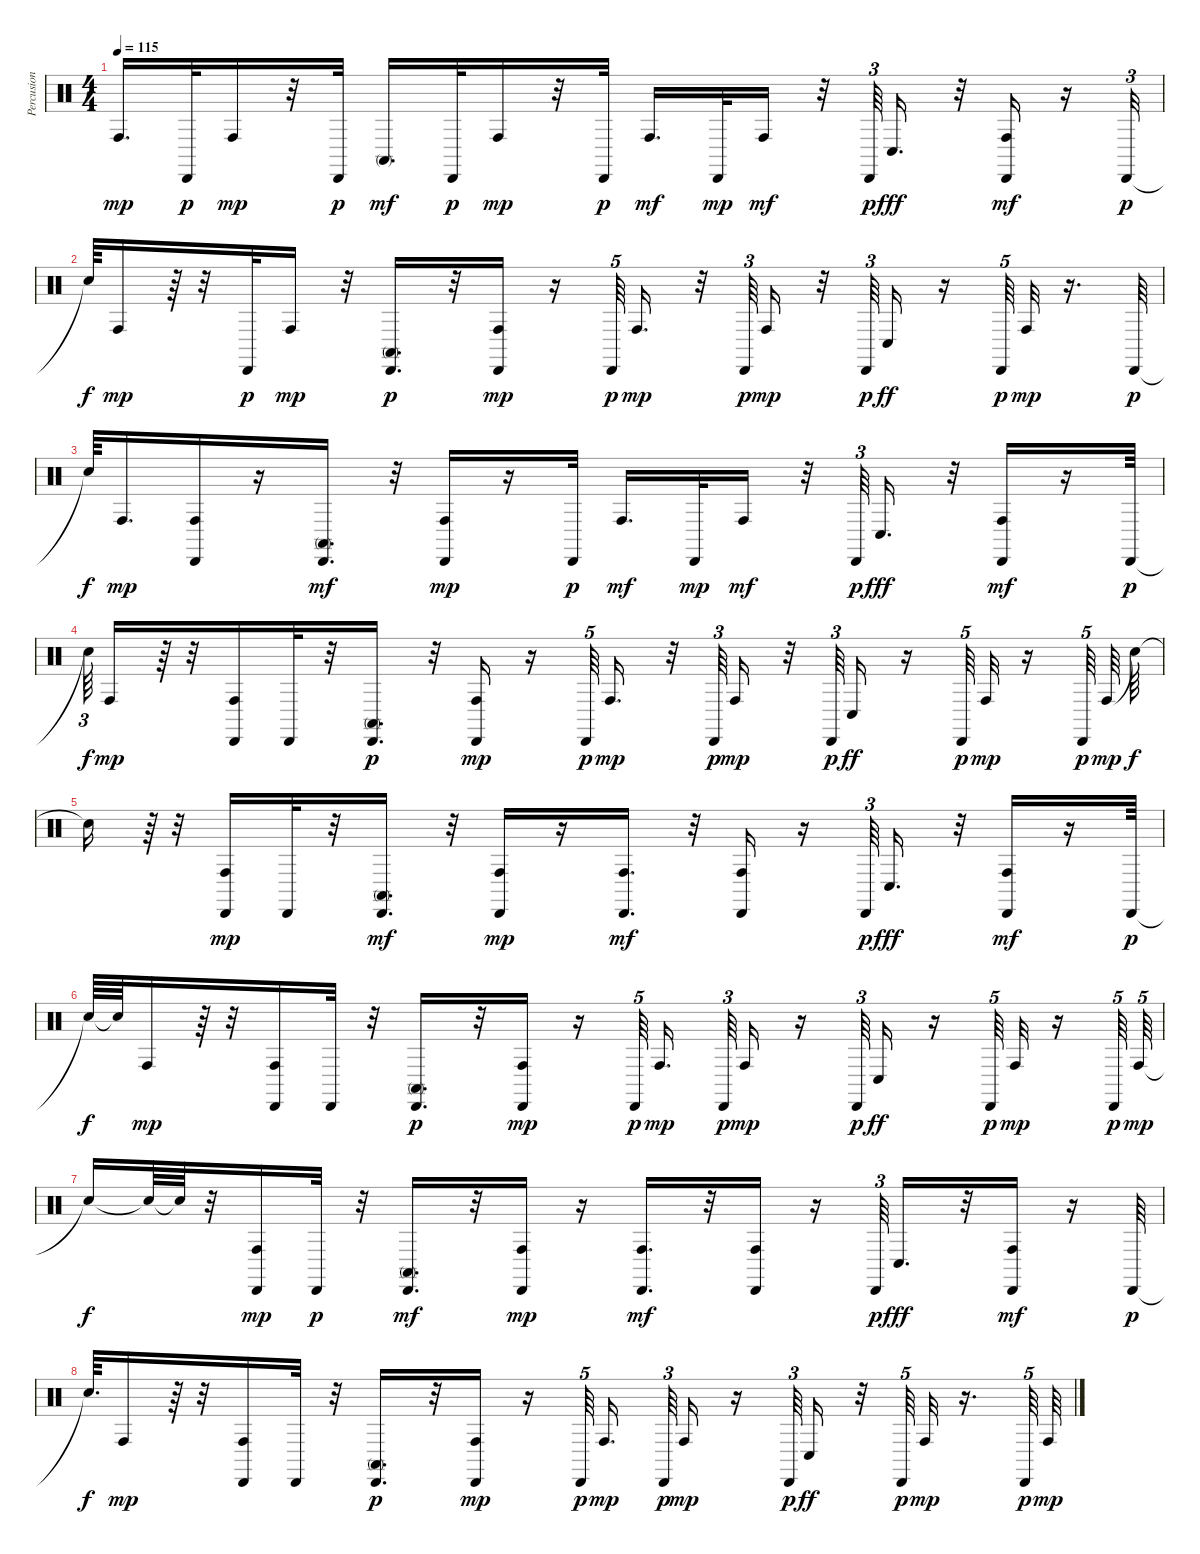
\track ("Percusion" "Percusion") {instrument percussion}
\staff {score}
\articulation defaults
\ts (4 4)
\tempo 115
\clef neutral
\ks c "Conga high (hit)".16{d dy mp} "Cabasa (hit)".32{dy p} "Conga high (hit)".16{dy mp}
r.32 "Cabasa (hit)".32{dy p} "Conga high (mute)".16{d dy mf} "Cabasa (hit)".32{dy p} "Conga high (hit)".16{dy mp} r.32 "Cabasa (hit)".32{dy p} "Conga high (hit)".16{d dy mf} "Cabasa (hit)".32{dy mp} "Conga high (hit)".16{dy mf} r.32 "Cabasa (hit)".64{tu (3 2) dy p} "Conga low (hit)".16{d dy fff} r.32 ("Cabasa (hit)" "Conga high (hit)").16{dy mf} r.16 "Cabasa (hit)".32{tu (3 2) dy p} |
"Snare (hit)"{t}.64{dy f} "Conga high (hit)".16{dy mp} r.64 r.32 "Cabasa (hit)".32{dy p} "Conga high (hit)".16{dy mp} r.32 ("Cabasa (hit)" "Conga high (mute)").16{d dy p} r.32 ("Cabasa (hit)" "Conga high (hit)").16{dy mp} r.16 "Cabasa (hit)".64{tu (5 4) dy p} "Conga high (hit)".16{d dy mp} r.32 "Cabasa (hit)".64{tu (3 2) dy p} "Conga high (hit)".16{dy mp} r.32 "Cabasa (hit)".64{tu (3 2) dy p} "Conga low (hit)".16{dy ff} r.16 "Cabasa (hit)".64{tu (5 4) dy p} "Conga high (hit)".32{dy mp} r.16{d} "Cabasa (hit)".64{dy p} |
"Snare (hit)"{t}.64{dy f} "Conga high (hit)".16{d dy mp} ("Cabasa (hit)" "Conga high (hit)").16 r.16 ("Cabasa (hit)" "Conga high (mute)").16{d dy mf} r.32 ("Cabasa (hit)" "Conga high (hit)").16{dy mp} r.16 "Cabasa (hit)".32{dy p} "Conga high (hit)".16{d dy mf} "Cabasa (hit)".32{dy mp} "Conga high (hit)".16{dy mf} r.32 "Cabasa (hit)".64{tu (3 2) dy p} "Conga low (hit)".16{d dy fff} r.32 ("Cabasa (hit)" "Conga high (hit)").16{dy mf} r.16 "Cabasa (hit)".64{dy p} |
"Snare (hit)"{t}.64{tu (3 2) dy f} "Conga high (hit)".16{dy mp} r.64 r.32 ("Cabasa (hit)" "Conga high (hit)").16 "Cabasa (hit)".32 r.32 ("Cabasa (hit)" "Conga high (mute)").16{d dy p} r.32 ("Cabasa (hit)" "Conga high (hit)").16{dy mp} r.16 "Cabasa (hit)".64{tu (5 4) dy p} "Conga high (hit)".16{d dy mp} r.32 "Cabasa (hit)".64{tu (3 2) dy p} "Conga high (hit)".16{dy mp} r.32 "Cabasa (hit)".64{tu (3 2) dy p} "Conga low (hit)".16{dy ff} r.16 "Cabasa (hit)".64{tu (5 4) dy p} "Conga high (hit)".32{dy mp} r.16 "Cabasa (hit)".64{tu (5 4) dy p} "Conga high (hit)".64{dy mp} "Snare (hit)"{t}.64{dy f} |
"Snare (hit)"{t}.16 r.64{tu (5 4)} r.32 ("Cabasa (hit)" "Conga high (hit)").16{dy mp} "Cabasa (hit)".32 r.32 ("Cabasa (hit)" "Conga high (mute)").16{d dy mf} r.32 ("Cabasa (hit)" "Conga high (hit)").16{dy mp} r.16 ("Cabasa (hit)" "Conga high (hit)").16{d dy mf} r.32 ("Cabasa (hit)" "Conga high (hit)").16 r.16 "Cabasa (hit)".64{tu (3 2) dy p} "Conga low (hit)".16{d dy fff} r.32 ("Cabasa (hit)" "Conga high (hit)").16{dy mf} r.16 "Cabasa (hit)".64{dy p} |
"Snare (hit)"{t}.64{dy f} "Snare (hit)"{t}.64 "Conga high (hit)".16{dy mp} r.64 r.32 ("Cabasa (hit)" "Conga high (hit)").16 "Cabasa (hit)".32 r.32 ("Cabasa (hit)" "Conga high (mute)").16{d dy p} r.32 ("Cabasa (hit)" "Conga high (hit)").16{dy mp} r.16 "Cabasa (hit)".64{tu (5 4) dy p beam splitsecondary} "Conga high (hit)".16{d dy mp beam splitsecondary} "Cabasa (hit)".64{tu (3 2) dy p} "Conga high (hit)".16{dy mp} r.16 "Cabasa (hit)".64{tu (3 2) dy p} "Conga low (hit)".16{dy ff} r.16 "Cabasa (hit)".64{tu (5 4) dy p} "Conga high (hit)".32{dy mp} r.16 "Cabasa (hit)".64{tu (5 4) dy p} "Conga high (hit)".64{tu (5 4) dy mp} |
"Snare (hit)"{t}.16{dy f} "Snare (hit)"{t}.64 "Snare (hit)"{t}.64 r.32 ("Cabasa (hit)" "Conga high (hit)").16{dy mp} "Cabasa (hit)".32{dy p} r.32 ("Cabasa (hit)" "Conga high (mute)").16{d dy mf} r.32 ("Cabasa (hit)" "Conga high (hit)").16{dy mp} r.16 ("Cabasa (hit)" "Conga high (hit)").16{d dy mf} r.32 ("Cabasa (hit)" "Conga high (hit)").16 r.16 "Cabasa (hit)".64{tu (3 2) dy p} "Conga low (hit)".16{d dy fff} r.32 ("Cabasa (hit)" "Conga high (hit)").16{dy mf} r.16 "Cabasa (hit)".64{dy p} |
"Snare (hit)"{t}.64{d dy f} "Conga high (hit)".16{dy mp} r.64 r.32 ("Cabasa (hit)" "Conga high (hit)").16 "Cabasa (hit)".32 r.32 ("Cabasa (hit)" "Conga high (mute)").16{d dy p} r.32 ("Cabasa (hit)" "Conga high (hit)").16{dy mp} r.16 "Cabasa (hit)".64{tu (5 4) dy p beam splitsecondary} "Conga high (hit)".16{d dy mp beam splitsecondary} "Cabasa (hit)".64{tu (3 2) dy p} "Conga high (hit)".16{dy mp} r.16 "Cabasa (hit)".64{tu (3 2) dy p} "Conga low (hit)".16{dy ff} r.32 "Cabasa (hit)".64{tu (5 4) dy p} "Conga high (hit)".32{dy mp} r.16{d} "Cabasa (hit)".64{tu (5 4) dy p} "Conga high (hit)".64{dy mp}
